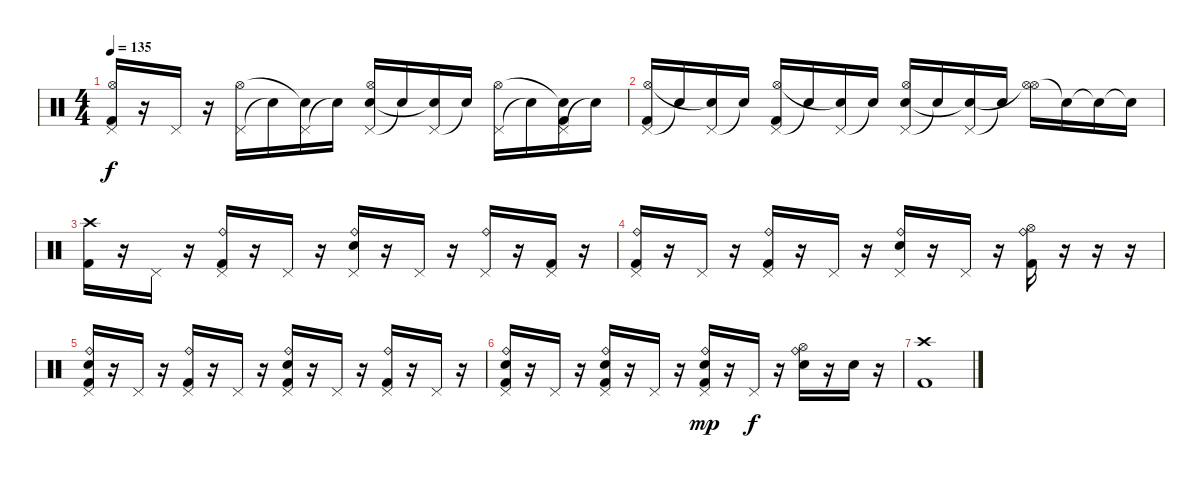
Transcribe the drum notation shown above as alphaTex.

\track (" " " ") {instrument percussion}
\staff {score}
\articulation defaults
\ts (4 4)
\tempo 135
\clef neutral
\ks c
("Pedal Hi-Hat (hit)" "Hi-Hat (open)" "Kick (hit) 2").16{dy f} r.16 "Pedal Hi-Hat (hit)".16 r.16 ("Pedal Hi-Hat (hit)" "Hi-Hat (open)").16 "Snare (hit)"{t}.16 ("Pedal Hi-Hat (hit)" "Snare (hit)"{t}).16 "Snare (hit)"{t}.16 ("Pedal Hi-Hat (hit)" "Electric Snare (hit)" "Hi-Hat (open)").16 "Snare (hit)"{t}.16 ("Pedal Hi-Hat (hit)" "Snare (hit)"{t}).16 "Snare (hit)"{t}.16 ("Pedal Hi-Hat (hit)" "Hi-Hat (open)").16 "Snare (hit)"{t}.16 ("Pedal Hi-Hat (hit)" "Snare (hit)"{t} "Kick (hit) 2").16 "Snare (hit)"{t}.16 |
("Pedal Hi-Hat (hit)" "Hi-Hat (open)" "Kick (hit) 2").16 "Snare (hit)"{t}.16 ("Pedal Hi-Hat (hit)" "Snare (hit)"{t}).16 "Snare (hit)"{t}.16 ("Pedal Hi-Hat (hit)" "Hi-Hat (open)" "Kick (hit) 2").16 "Snare (hit)"{t}.16 ("Pedal Hi-Hat (hit)" "Snare (hit)"{t}).16 "Snare (hit)"{t}.16 ("Pedal Hi-Hat (hit)" "Electric Snare (hit)" "Hi-Hat (open)").16 "Snare (hit)"{t}.16 ("Pedal Hi-Hat (hit)" "Snare (hit)"{t}).16 "Snare (hit)"{t}.16 ("Hi-Hat (open)" "Hi-Hat (open)"{t}).16 "Snare (hit)"{t}.16 "Snare (hit)"{t}.16 "Snare (hit)"{t}.16 |
("Crash high (hit)" "Kick (hit) 2").16 r.16 "Pedal Hi-Hat (hit)".16 r.16 ("Pedal Hi-Hat (hit)" "Ride (bell)" "Kick (hit) 2").16 r.16 "Pedal Hi-Hat (hit)".16 r.16 ("Pedal Hi-Hat (hit)" "Electric Snare (hit)" "Ride (bell)").16 r.16 "Pedal Hi-Hat (hit)".16 r.16 ("Pedal Hi-Hat (hit)" "Ride (bell)").16 r.16 ("Pedal Hi-Hat (hit)" "Kick (hit) 2").16 r.16 |
("Pedal Hi-Hat (hit)" "Ride (bell)" "Kick (hit) 2").16 r.16 "Pedal Hi-Hat (hit)".16 r.16 ("Pedal Hi-Hat (hit)" "Ride (bell)" "Kick (hit) 2").16 r.16 "Pedal Hi-Hat (hit)".16 r.16 ("Pedal Hi-Hat (hit)" "Electric Snare (hit)" "Ride (bell)").16 r.16 "Pedal Hi-Hat (hit)".16 r.16 ("Hi-Hat (open)" "Ride (bell)" "Kick (hit) 2").16 r.16 r.16 r.16 |
("Pedal Hi-Hat (hit)" "Electric Snare (hit)" "Ride (bell)" "Kick (hit) 2").16 r.16 "Pedal Hi-Hat (hit)".16 r.16 ("Pedal Hi-Hat (hit)" "Ride (bell)" "Kick (hit) 2").16 r.16 "Pedal Hi-Hat (hit)".16 r.16 ("Pedal Hi-Hat (hit)" "Electric Snare (hit)" "Ride (bell)" "Kick (hit) 2").16 r.16 "Pedal Hi-Hat (hit)".16 r.16 ("Pedal Hi-Hat (hit)" "Ride (bell)" "Kick (hit) 2").16 r.16 "Pedal Hi-Hat (hit)".16 r.16 |
("Pedal Hi-Hat (hit)" "Electric Snare (hit)" "Ride (bell)" "Kick (hit) 2").16 r.16 "Pedal Hi-Hat (hit)".16 r.16 ("Pedal Hi-Hat (hit)" "Electric Snare (hit)" "Ride (bell)" "Kick (hit) 2").16 r.16 "Pedal Hi-Hat (hit)".16 r.16 ("Pedal Hi-Hat (hit)" "Electric Snare (hit)" "Ride (bell)" "Kick (hit) 2").16{dy mp} r.16 "Pedal Hi-Hat (hit)".16{dy f} r.16 ("Hi-Hat (open)" "Electric Snare (hit)" "Ride (bell)").16 r.16 "Electric Snare (hit)".16 r.16 |
("Crash high (hit)" "Kick (hit) 2").1
